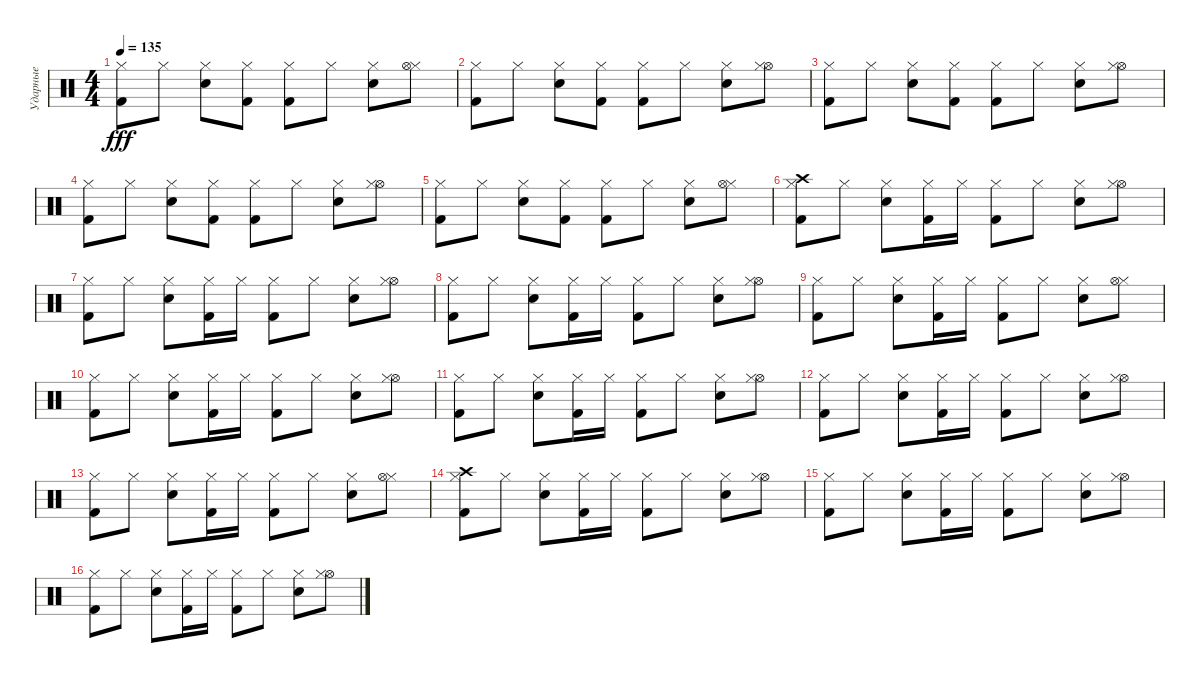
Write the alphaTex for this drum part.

\track ("Ударные" "Ударные") {instrument percussion}
\staff {score}
\articulation defaults
\ts (4 4)
\tempo 135
\clef neutral
\ks c
("Hi-Hat (closed)" "Kick (hit) 2").8{dy fff} "Hi-Hat (closed)".8 ("Hi-Hat (closed)" "Snare (hit) 2").8 ("Kick (hit) 2" "Hi-Hat (closed)").8 ("Hi-Hat (closed)" "Kick (hit) 2").8 "Hi-Hat (closed)".8 ("Snare (hit) 2" "Hi-Hat (closed)").8 ("Hi-Hat (closed)" "Hi-Hat (open)").8 |
("Hi-Hat (closed)" "Kick (hit) 2").8 "Hi-Hat (closed)".8 ("Hi-Hat (closed)" "Snare (hit) 2").8 ("Hi-Hat (closed)" "Kick (hit) 2").8 ("Hi-Hat (closed)" "Kick (hit) 2").8 "Hi-Hat (closed)".8 ("Snare (hit) 2" "Hi-Hat (closed)").8 ("Hi-Hat (open)" "Hi-Hat (closed)").8 |
("Hi-Hat (closed)" "Kick (hit) 2").8 "Hi-Hat (closed)".8 ("Hi-Hat (closed)" "Snare (hit) 2").8 ("Kick (hit) 2" "Hi-Hat (closed)").8 ("Hi-Hat (closed)" "Kick (hit) 2").8 "Hi-Hat (closed)".8 ("Hi-Hat (closed)" "Snare (hit) 2").8 ("Hi-Hat (open)" "Hi-Hat (closed)").8 |
("Hi-Hat (closed)" "Kick (hit) 2").8 "Hi-Hat (closed)".8 ("Snare (hit) 2" "Hi-Hat (closed)").8 ("Hi-Hat (closed)" "Kick (hit) 2").8 ("Hi-Hat (closed)" "Kick (hit) 2").8 "Hi-Hat (closed)".8 ("Hi-Hat (closed)" "Snare (hit) 2").8 ("Hi-Hat (open)" "Hi-Hat (closed)").8 |
("Hi-Hat (closed)" "Kick (hit) 2").8 "Hi-Hat (closed)".8 ("Hi-Hat (closed)" "Snare (hit) 2").8 ("Kick (hit) 2" "Hi-Hat (closed)").8 ("Hi-Hat (closed)" "Kick (hit) 2").8 "Hi-Hat (closed)".8 ("Snare (hit) 2" "Hi-Hat (closed)").8 ("Hi-Hat (closed)" "Hi-Hat (open)").8 |
("Crash high (hit)" "Hi-Hat (closed)" "Kick (hit) 2").8 "Hi-Hat (closed)".8 ("Hi-Hat (closed)" "Snare (hit) 2").8 ("Hi-Hat (closed)" "Kick (hit) 2").16 "Hi-Hat (closed)".16 ("Hi-Hat (closed)" "Kick (hit) 2").8 "Hi-Hat (closed)".8 ("Snare (hit) 2" "Hi-Hat (closed)").8 ("Hi-Hat (open)" "Hi-Hat (closed)").8 |
("Hi-Hat (closed)" "Kick (hit) 2").8 "Hi-Hat (closed)".8 ("Hi-Hat (closed)" "Snare (hit) 2").8 ("Kick (hit) 2" "Hi-Hat (closed)").16 "Hi-Hat (closed)".16 ("Hi-Hat (closed)" "Kick (hit) 2").8 "Hi-Hat (closed)".8 ("Hi-Hat (closed)" "Snare (hit) 2").8 ("Hi-Hat (open)" "Hi-Hat (closed)").8 |
("Hi-Hat (closed)" "Kick (hit) 2").8 "Hi-Hat (closed)".8 ("Snare (hit) 2" "Hi-Hat (closed)").8 ("Hi-Hat (closed)" "Kick (hit) 2").16 "Hi-Hat (closed)".16 ("Hi-Hat (closed)" "Kick (hit) 2").8 "Hi-Hat (closed)".8 ("Hi-Hat (closed)" "Snare (hit) 2").8 ("Hi-Hat (open)" "Hi-Hat (closed)").8 |
("Hi-Hat (closed)" "Kick (hit) 2").8 "Hi-Hat (closed)".8 ("Hi-Hat (closed)" "Snare (hit) 2").8 ("Kick (hit) 2" "Hi-Hat (closed)").16 "Hi-Hat (closed)".16 ("Hi-Hat (closed)" "Kick (hit) 2").8 "Hi-Hat (closed)".8 ("Snare (hit) 2" "Hi-Hat (closed)").8 ("Hi-Hat (closed)" "Hi-Hat (open)").8 |
("Hi-Hat (closed)" "Kick (hit) 2").8 "Hi-Hat (closed)".8 ("Hi-Hat (closed)" "Snare (hit) 2").8 ("Hi-Hat (closed)" "Kick (hit) 2").16 "Hi-Hat (closed)".16 ("Hi-Hat (closed)" "Kick (hit) 2").8 "Hi-Hat (closed)".8 ("Snare (hit) 2" "Hi-Hat (closed)").8 ("Hi-Hat (open)" "Hi-Hat (closed)").8 |
("Hi-Hat (closed)" "Kick (hit) 2").8 "Hi-Hat (closed)".8 ("Hi-Hat (closed)" "Snare (hit) 2").8 ("Kick (hit) 2" "Hi-Hat (closed)").16 "Hi-Hat (closed)".16 ("Hi-Hat (closed)" "Kick (hit) 2").8 "Hi-Hat (closed)".8 ("Hi-Hat (closed)" "Snare (hit) 2").8 ("Hi-Hat (open)" "Hi-Hat (closed)").8 |
("Hi-Hat (closed)" "Kick (hit) 2").8 "Hi-Hat (closed)".8 ("Snare (hit) 2" "Hi-Hat (closed)").8 ("Hi-Hat (closed)" "Kick (hit) 2").16 "Hi-Hat (closed)".16 ("Hi-Hat (closed)" "Kick (hit) 2").8 "Hi-Hat (closed)".8 ("Hi-Hat (closed)" "Snare (hit) 2").8 ("Hi-Hat (open)" "Hi-Hat (closed)").8 |
("Hi-Hat (closed)" "Kick (hit) 2").8 "Hi-Hat (closed)".8 ("Hi-Hat (closed)" "Snare (hit) 2").8 ("Kick (hit) 2" "Hi-Hat (closed)").16 "Hi-Hat (closed)".16 ("Hi-Hat (closed)" "Kick (hit) 2").8 "Hi-Hat (closed)".8 ("Snare (hit) 2" "Hi-Hat (closed)").8 ("Hi-Hat (closed)" "Hi-Hat (open)").8 |
("Crash high (hit)" "Hi-Hat (closed)" "Kick (hit) 2").8 "Hi-Hat (closed)".8 ("Hi-Hat (closed)" "Snare (hit) 2").8 ("Hi-Hat (closed)" "Kick (hit) 2").16 "Hi-Hat (closed)".16 ("Hi-Hat (closed)" "Kick (hit) 2").8 "Hi-Hat (closed)".8 ("Snare (hit) 2" "Hi-Hat (closed)").8 ("Hi-Hat (open)" "Hi-Hat (closed)").8 |
("Hi-Hat (closed)" "Kick (hit) 2").8 "Hi-Hat (closed)".8 ("Hi-Hat (closed)" "Snare (hit) 2").8 ("Kick (hit) 2" "Hi-Hat (closed)").16 "Hi-Hat (closed)".16 ("Hi-Hat (closed)" "Kick (hit) 2").8 "Hi-Hat (closed)".8 ("Hi-Hat (closed)" "Snare (hit) 2").8 ("Hi-Hat (open)" "Hi-Hat (closed)").8 |
("Hi-Hat (closed)" "Kick (hit) 2").8 "Hi-Hat (closed)".8 ("Snare (hit) 2" "Hi-Hat (closed)").8 ("Hi-Hat (closed)" "Kick (hit) 2").16 "Hi-Hat (closed)".16 ("Hi-Hat (closed)" "Kick (hit) 2").8 "Hi-Hat (closed)".8 ("Hi-Hat (closed)" "Snare (hit) 2").8 ("Hi-Hat (open)" "Hi-Hat (closed)").8
